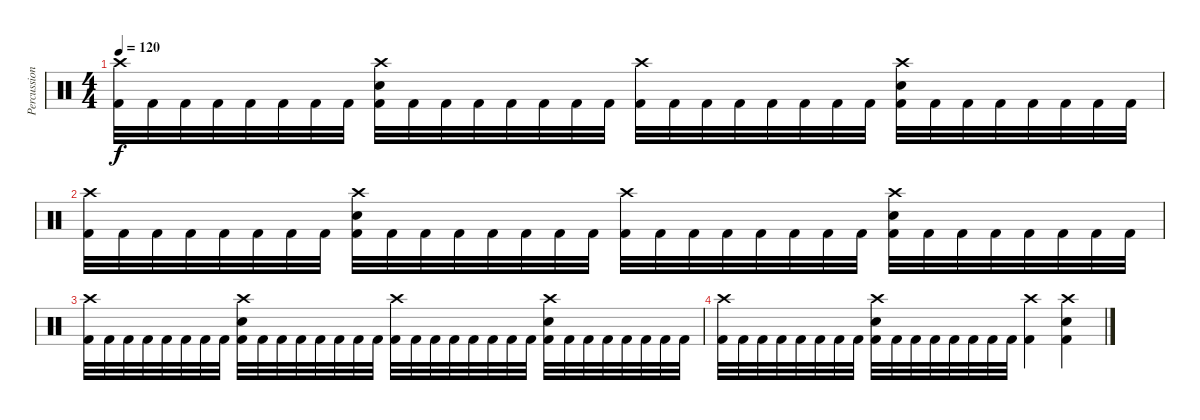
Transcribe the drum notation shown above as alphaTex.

\track ("Percussion" "Percussion") {instrument percussion}
\staff {score}
\articulation defaults
\ts (4 4)
\tempo 120
\clef neutral
\ks c
("Crash high (hit)" "Kick (hit) 2").32{dy f} "Kick (hit) 2".32 "Kick (hit) 2".32 "Kick (hit) 2".32 "Kick (hit) 2".32 "Kick (hit) 2".32 "Kick (hit) 2".32 "Kick (hit) 2".32 ("Crash high (hit)" "Electric Snare (hit)" "Kick (hit) 2").32 "Kick (hit) 2".32 "Kick (hit) 2".32 "Kick (hit) 2".32 "Kick (hit) 2".32 "Kick (hit) 2".32 "Kick (hit) 2".32 "Kick (hit) 2".32 ("Crash high (hit)" "Kick (hit) 2").32 "Kick (hit) 2".32 "Kick (hit) 2".32 "Kick (hit) 2".32 "Kick (hit) 2".32 "Kick (hit) 2".32 "Kick (hit) 2".32 "Kick (hit) 2".32 ("Crash high (hit)" "Electric Snare (hit)" "Kick (hit) 2").32 "Kick (hit) 2".32 "Kick (hit) 2".32 "Kick (hit) 2".32 "Kick (hit) 2".32 "Kick (hit) 2".32 "Kick (hit) 2".32 "Kick (hit) 2".32 |
("Crash high (hit)" "Kick (hit) 2").32 "Kick (hit) 2".32 "Kick (hit) 2".32 "Kick (hit) 2".32 "Kick (hit) 2".32 "Kick (hit) 2".32 "Kick (hit) 2".32 "Kick (hit) 2".32 ("Crash high (hit)" "Electric Snare (hit)" "Kick (hit) 2").32 "Kick (hit) 2".32 "Kick (hit) 2".32 "Kick (hit) 2".32 "Kick (hit) 2".32 "Kick (hit) 2".32 "Kick (hit) 2".32 "Kick (hit) 2".32 ("Crash high (hit)" "Kick (hit) 2").32 "Kick (hit) 2".32 "Kick (hit) 2".32 "Kick (hit) 2".32 "Kick (hit) 2".32 "Kick (hit) 2".32 "Kick (hit) 2".32 "Kick (hit) 2".32 ("Crash high (hit)" "Electric Snare (hit)" "Kick (hit) 2").32 "Kick (hit) 2".32 "Kick (hit) 2".32 "Kick (hit) 2".32 "Kick (hit) 2".32 "Kick (hit) 2".32 "Kick (hit) 2".32 "Kick (hit) 2".32 |
("Crash high (hit)" "Kick (hit) 2").32 "Kick (hit) 2".32 "Kick (hit) 2".32 "Kick (hit) 2".32 "Kick (hit) 2".32 "Kick (hit) 2".32 "Kick (hit) 2".32 "Kick (hit) 2".32 ("Crash high (hit)" "Electric Snare (hit)" "Kick (hit) 2").32 "Kick (hit) 2".32 "Kick (hit) 2".32 "Kick (hit) 2".32 "Kick (hit) 2".32 "Kick (hit) 2".32 "Kick (hit) 2".32 "Kick (hit) 2".32 ("Crash high (hit)" "Kick (hit) 2").32 "Kick (hit) 2".32 "Kick (hit) 2".32 "Kick (hit) 2".32 "Kick (hit) 2".32 "Kick (hit) 2".32 "Kick (hit) 2".32 "Kick (hit) 2".32 ("Crash high (hit)" "Electric Snare (hit)" "Kick (hit) 2").32 "Kick (hit) 2".32 "Kick (hit) 2".32 "Kick (hit) 2".32 "Kick (hit) 2".32 "Kick (hit) 2".32 "Kick (hit) 2".32 "Kick (hit) 2".32 |
("Crash high (hit)" "Kick (hit) 2").32 "Kick (hit) 2".32 "Kick (hit) 2".32 "Kick (hit) 2".32 "Kick (hit) 2".32 "Kick (hit) 2".32 "Kick (hit) 2".32 "Kick (hit) 2".32 ("Crash high (hit)" "Electric Snare (hit)" "Kick (hit) 2").32 "Kick (hit) 2".32 "Kick (hit) 2".32 "Kick (hit) 2".32 "Kick (hit) 2".32 "Kick (hit) 2".32 "Kick (hit) 2".32 "Kick (hit) 2".32 ("Crash high (hit)" "Kick (hit) 2").4 ("Crash high (hit)" "Electric Snare (hit)" "Kick (hit) 2").4
